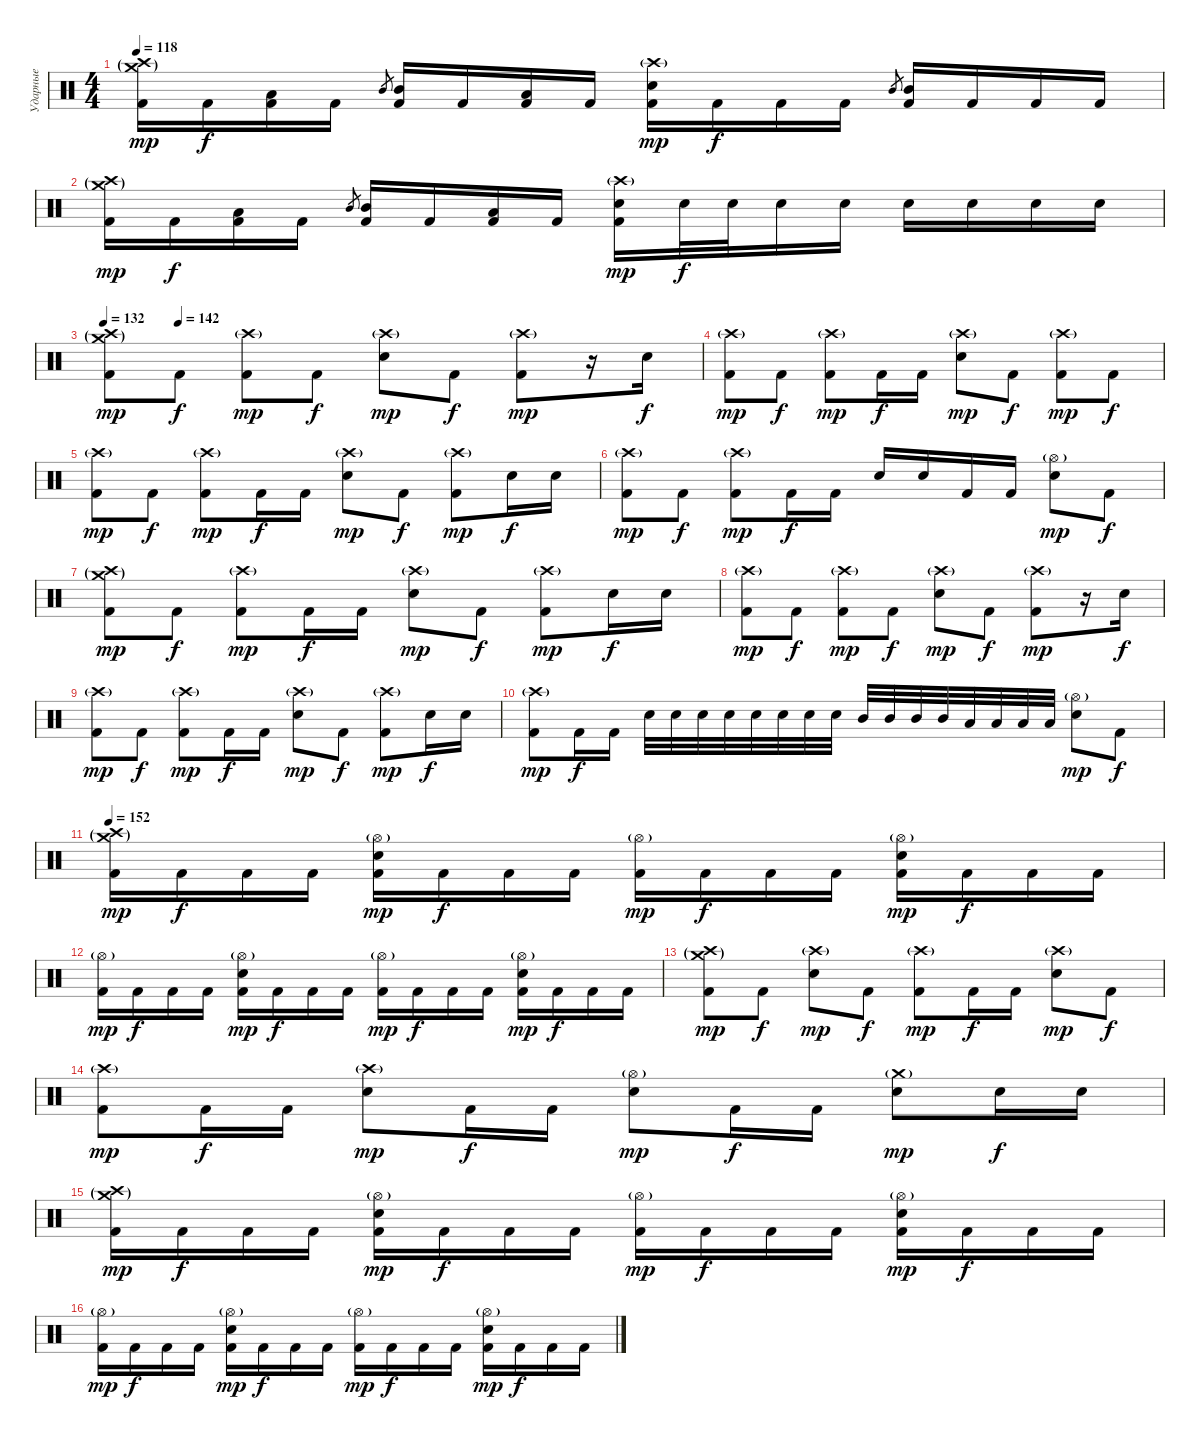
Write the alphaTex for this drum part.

\track ("Ударные" "Ударные") {instrument percussion}
\staff {score}
\articulation defaults
\ts (4 4)
\tempo 118
\clef neutral
\ks c
("Crash high (hit)"{g} "Crash medium (hit)"{g} "Kick (hit) 2").16{dy mp} "Kick (hit) 2".16{dy f} ("Low Tom (hit)" "Kick (hit) 2").16 "Kick (hit) 2".16 "Mid Tom (hit)".8{gr} ("Mid Tom (hit)" "Kick (hit) 2").16 "Kick (hit) 2".16 ("Low Tom (hit)" "Kick (hit) 2").16 "Kick (hit) 2".16 ("Crash high (hit)"{g} "Electric Snare (hit)" "Kick (hit) 2").16{dy mp} "Kick (hit) 2".16{dy f} "Kick (hit) 2".16 "Kick (hit) 2".16 "Mid Tom (hit)".8{gr} ("Mid Tom (hit)" "Kick (hit) 2").16 "Kick (hit) 2".16 "Kick (hit) 2".16 "Kick (hit) 2".16 |
("Crash high (hit)"{g} "Crash medium (hit)"{g} "Kick (hit) 2").16{dy mp} "Kick (hit) 2".16{dy f} ("Low Tom (hit)" "Kick (hit) 2").16 "Kick (hit) 2".16 "Mid Tom (hit)".8{gr} ("Mid Tom (hit)" "Kick (hit) 2").16 "Kick (hit) 2".16 ("Low Tom (hit)" "Kick (hit) 2").16 "Kick (hit) 2".16 ("Crash high (hit)"{g} "Electric Snare (hit)" "Kick (hit) 2").16{dy mp} "Electric Snare (hit)".32{dy f} "Electric Snare (hit)".32 "Electric Snare (hit)".16 "Electric Snare (hit)".16 "Electric Snare (hit)".16 "Electric Snare (hit)".16 "Electric Snare (hit)".16 "Electric Snare (hit)".16 |
\tempo 132
\tempo (142 0.125)
("Crash high (hit)"{g} "Crash medium (hit)"{g} "Kick (hit) 2").8{dy mp} "Kick (hit) 2".8{dy f} ("Crash high (hit)"{g} "Kick (hit) 2").8{dy mp} "Kick (hit) 2".8{dy f} ("Crash high (hit)"{g} "Electric Snare (hit)").8{dy mp} "Kick (hit) 2".8{dy f} ("Crash high (hit)"{g} "Kick (hit) 2").8{dy mp} r.16 "Electric Snare (hit)".16{dy f} |
("Crash high (hit)"{g} "Kick (hit) 2").8{dy mp} "Kick (hit) 2".8{dy f} ("Crash high (hit)"{g} "Kick (hit) 2").8{dy mp} "Kick (hit) 2".16{dy f} "Kick (hit) 2".16 ("Crash high (hit)"{g} "Electric Snare (hit)").8{dy mp} "Kick (hit) 2".8{dy f} ("Crash high (hit)"{g} "Kick (hit) 2").8{dy mp} "Kick (hit) 2".8{dy f} |
("Crash high (hit)"{g} "Kick (hit) 2").8{dy mp} "Kick (hit) 2".8{dy f} ("Crash high (hit)"{g} "Kick (hit) 2").8{dy mp} "Kick (hit) 2".16{dy f} "Kick (hit) 2".16 ("Crash high (hit)"{g} "Electric Snare (hit)").8{dy mp} "Kick (hit) 2".8{dy f} ("Crash high (hit)"{g} "Kick (hit) 2").8{dy mp} "Electric Snare (hit)".16{dy f} "Electric Snare (hit)".16 |
("Crash high (hit)"{g} "Kick (hit) 2").8{dy mp} "Kick (hit) 2".8{dy f} ("Crash high (hit)"{g} "Kick (hit) 2").8{dy mp} "Kick (hit) 2".16{dy f} "Kick (hit) 2".16 "Electric Snare (hit)".16 "Electric Snare (hit)".16 "Kick (hit) 2".16 "Kick (hit) 2".16 ("Hi-Hat (open)"{g} "Electric Snare (hit)").8{dy mp} "Kick (hit) 2".8{dy f} |
("Crash medium (hit)"{g} "Crash high (hit)"{g} "Kick (hit) 2").8{dy mp} "Kick (hit) 2".8{dy f} ("Crash high (hit)"{g} "Kick (hit) 2").8{dy mp} "Kick (hit) 2".16{dy f} "Kick (hit) 2".16 ("Crash high (hit)"{g} "Electric Snare (hit)").8{dy mp} "Kick (hit) 2".8{dy f} ("Crash high (hit)"{g} "Kick (hit) 2").8{dy mp} "Electric Snare (hit)".16{dy f} "Electric Snare (hit)".16 |
("Crash high (hit)"{g} "Kick (hit) 2").8{dy mp} "Kick (hit) 2".8{dy f} ("Crash high (hit)"{g} "Kick (hit) 2").8{dy mp} "Kick (hit) 2".8{dy f} ("Crash high (hit)"{g} "Electric Snare (hit)").8{dy mp} "Kick (hit) 2".8{dy f} ("Crash high (hit)"{g} "Kick (hit) 2").8{dy mp} r.16 "Electric Snare (hit)".16{dy f} |
("Crash high (hit)"{g} "Kick (hit) 2").8{dy mp} "Kick (hit) 2".8{dy f} ("Crash high (hit)"{g} "Kick (hit) 2").8{dy mp} "Kick (hit) 2".16{dy f} "Kick (hit) 2".16 ("Crash high (hit)"{g} "Electric Snare (hit)").8{dy mp} "Kick (hit) 2".8{dy f} ("Crash high (hit)"{g} "Kick (hit) 2").8{dy mp} "Electric Snare (hit)".16{dy f} "Electric Snare (hit)".16 |
("Crash high (hit)"{g} "Kick (hit) 2").8{dy mp} "Kick (hit) 2".16{dy f} "Kick (hit) 2".16 "Electric Snare (hit)".32 "Electric Snare (hit)".32 "Electric Snare (hit)".32 "Electric Snare (hit)".32 "Electric Snare (hit)".32 "Electric Snare (hit)".32 "Electric Snare (hit)".32 "Electric Snare (hit)".32 "Mid Tom (hit)".32 "Mid Tom (hit)".32 "Mid Tom (hit)".32 "Mid Tom (hit)".32 "Low Tom (hit)".32 "Low Tom (hit)".32 "Low Tom (hit)".32 "Low Tom (hit)".32 ("Hi-Hat (open)"{g} "Electric Snare (hit)").8{dy mp} "Kick (hit) 2".8{dy f} |
\tempo 152
("Crash high (hit)"{g} "Crash medium (hit)"{g} "Kick (hit) 2").16{dy mp} "Kick (hit) 2".16{dy f} "Kick (hit) 2".16 "Kick (hit) 2".16 ("Hi-Hat (open)"{g} "Electric Snare (hit)" "Kick (hit) 2").16{dy mp} "Kick (hit) 2".16{dy f} "Kick (hit) 2".16 "Kick (hit) 2".16 ("Hi-Hat (open)"{g} "Kick (hit) 2").16{dy mp} "Kick (hit) 2".16{dy f} "Kick (hit) 2".16 "Kick (hit) 2".16 ("Hi-Hat (open)"{g} "Electric Snare (hit)" "Kick (hit) 2").16{dy mp} "Kick (hit) 2".16{dy f} "Kick (hit) 2".16 "Kick (hit) 2".16 |
("Hi-Hat (open)"{g} "Kick (hit) 2").16{dy mp} "Kick (hit) 2".16{dy f} "Kick (hit) 2".16 "Kick (hit) 2".16 ("Hi-Hat (open)"{g} "Electric Snare (hit)" "Kick (hit) 2").16{dy mp} "Kick (hit) 2".16{dy f} "Kick (hit) 2".16 "Kick (hit) 2".16 ("Hi-Hat (open)"{g} "Kick (hit) 2").16{dy mp} "Kick (hit) 2".16{dy f} "Kick (hit) 2".16 "Kick (hit) 2".16 ("Hi-Hat (open)"{g} "Electric Snare (hit)" "Kick (hit) 2").16{dy mp} "Kick (hit) 2".16{dy f} "Kick (hit) 2".16 "Kick (hit) 2".16 |
("Crash high (hit)"{g} "Crash medium (hit)"{g} "Kick (hit) 2").8{dy mp} "Kick (hit) 2".8{dy f} ("Crash high (hit)"{g} "Electric Snare (hit)").8{dy mp} "Kick (hit) 2".8{dy f} ("Crash high (hit)"{g} "Kick (hit) 2").8{dy mp} "Kick (hit) 2".16{dy f} "Kick (hit) 2".16 ("Crash high (hit)"{g} "Electric Snare (hit)").8{dy mp} "Kick (hit) 2".8{dy f} |
("Crash high (hit)"{g} "Kick (hit) 2").8{dy mp} "Kick (hit) 2".16{dy f} "Kick (hit) 2".16 ("Crash high (hit)"{g} "Electric Snare (hit)").8{dy mp} "Kick (hit) 2".16{dy f} "Kick (hit) 2".16 ("Hi-Hat (open)"{g} "Electric Snare (hit)").8{dy mp} "Kick (hit) 2".16{dy f} "Kick (hit) 2".16 ("Crash medium (hit)"{g} "Electric Snare (hit)").8{dy mp} "Electric Snare (hit)".16{dy f} "Electric Snare (hit)".16 |
("Crash high (hit)"{g} "Crash medium (hit)"{g} "Kick (hit) 2").16{dy mp} "Kick (hit) 2".16{dy f} "Kick (hit) 2".16 "Kick (hit) 2".16 ("Hi-Hat (open)"{g} "Electric Snare (hit)" "Kick (hit) 2").16{dy mp} "Kick (hit) 2".16{dy f} "Kick (hit) 2".16 "Kick (hit) 2".16 ("Hi-Hat (open)"{g} "Kick (hit) 2").16{dy mp} "Kick (hit) 2".16{dy f} "Kick (hit) 2".16 "Kick (hit) 2".16 ("Hi-Hat (open)"{g} "Electric Snare (hit)" "Kick (hit) 2").16{dy mp} "Kick (hit) 2".16{dy f} "Kick (hit) 2".16 "Kick (hit) 2".16 |
("Hi-Hat (open)"{g} "Kick (hit) 2").16{dy mp} "Kick (hit) 2".16{dy f} "Kick (hit) 2".16 "Kick (hit) 2".16 ("Hi-Hat (open)"{g} "Electric Snare (hit)" "Kick (hit) 2").16{dy mp} "Kick (hit) 2".16{dy f} "Kick (hit) 2".16 "Kick (hit) 2".16 ("Hi-Hat (open)"{g} "Kick (hit) 2").16{dy mp} "Kick (hit) 2".16{dy f} "Kick (hit) 2".16 "Kick (hit) 2".16 ("Hi-Hat (open)"{g} "Electric Snare (hit)" "Kick (hit) 2").16{dy mp} "Kick (hit) 2".16{dy f} "Kick (hit) 2".16 "Kick (hit) 2".16
